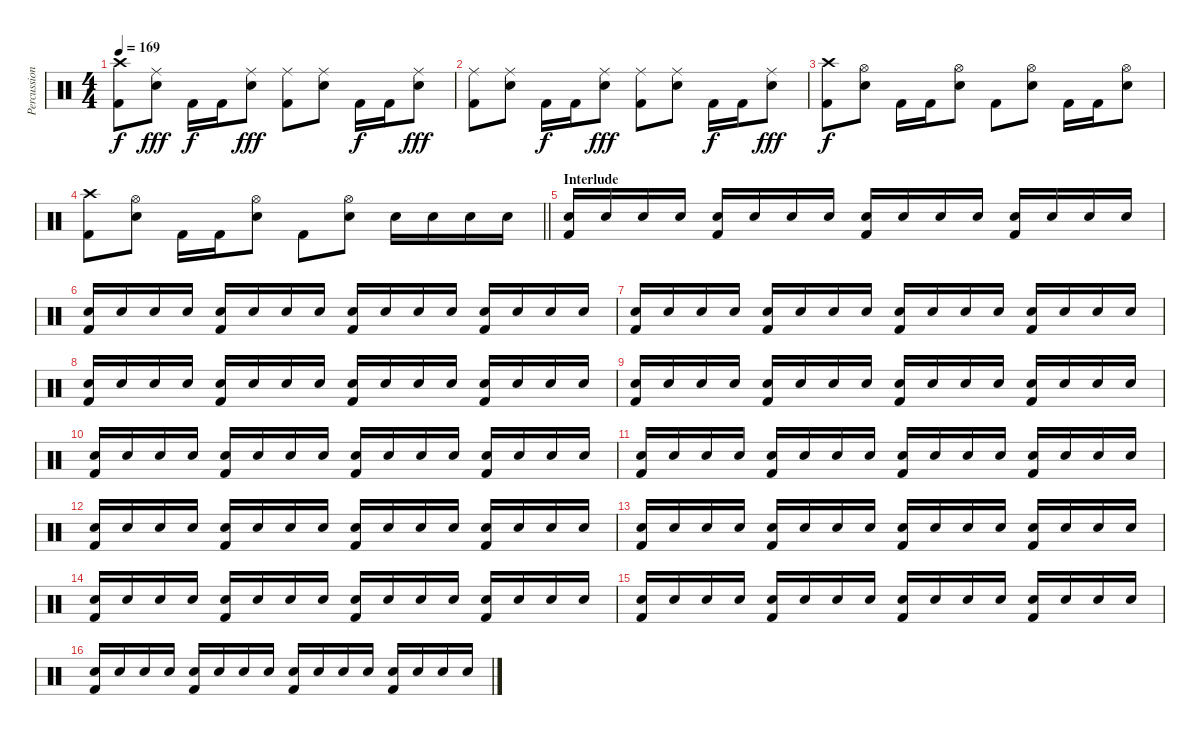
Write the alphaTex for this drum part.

\track ("Percussion" "Percussion") {instrument percussion}
\staff {score}
\articulation defaults
\ts (4 4)
\tempo 169
\clef neutral
\ks c
("Crash high (hit)" "Kick (hit) 2").8{dy f} ("Ride (middle)" "Electric Snare (hit)").8{dy fff} "Kick (hit) 2".16{dy f} "Kick (hit) 2".16 ("Ride (middle)" "Electric Snare (hit)").8{dy fff} ("Ride (middle)" "Kick (hit) 2").8 ("Ride (middle)" "Electric Snare (hit)").8 "Kick (hit) 2".16{dy f} "Kick (hit) 2".16 ("Ride (middle)" "Electric Snare (hit)").8{dy fff} |
("Ride (middle)" "Kick (hit) 2").8 ("Ride (middle)" "Electric Snare (hit)").8 "Kick (hit) 2".16{dy f} "Kick (hit) 2".16 ("Ride (middle)" "Electric Snare (hit)").8{dy fff} ("Ride (middle)" "Kick (hit) 2").8 ("Ride (middle)" "Electric Snare (hit)").8 "Kick (hit) 2".16{dy f} "Kick (hit) 2".16 ("Ride (middle)" "Electric Snare (hit)").8{dy fff} |
("Crash high (hit)" "Kick (hit) 2").8{dy f} ("Hi-Hat (open)" "Electric Snare (hit)").8 "Kick (hit) 2".16 "Kick (hit) 2".16 ("Hi-Hat (open)" "Electric Snare (hit)").8 "Kick (hit) 2".8 ("Hi-Hat (open)" "Electric Snare (hit)").8 "Kick (hit) 2".16 "Kick (hit) 2".16 ("Hi-Hat (open)" "Electric Snare (hit)").8 |
\barLineRight lightlight
("Crash high (hit)" "Kick (hit) 2").8 ("Hi-Hat (open)" "Electric Snare (hit)").8 "Kick (hit) 2".16 "Kick (hit) 2".16 ("Hi-Hat (open)" "Electric Snare (hit)").8 "Kick (hit) 2".8 ("Hi-Hat (open)" "Electric Snare (hit)").8 "Electric Snare (hit)".16 "Electric Snare (hit)".16 "Electric Snare (hit)".16 "Electric Snare (hit)".16 |
\section ("" "Interlude")
("Electric Snare (hit)" "Kick (hit) 2").16 "Electric Snare (hit)".16 "Electric Snare (hit)".16 "Electric Snare (hit)".16 ("Electric Snare (hit)" "Kick (hit) 2").16 "Electric Snare (hit)".16 "Electric Snare (hit)".16 "Electric Snare (hit)".16 ("Electric Snare (hit)" "Kick (hit) 2").16 "Electric Snare (hit)".16 "Electric Snare (hit)".16 "Electric Snare (hit)".16 ("Electric Snare (hit)" "Kick (hit) 2").16 "Electric Snare (hit)".16 "Electric Snare (hit)".16 "Electric Snare (hit)".16 |
("Electric Snare (hit)" "Kick (hit) 2").16 "Electric Snare (hit)".16 "Electric Snare (hit)".16 "Electric Snare (hit)".16 ("Electric Snare (hit)" "Kick (hit) 2").16 "Electric Snare (hit)".16 "Electric Snare (hit)".16 "Electric Snare (hit)".16 ("Electric Snare (hit)" "Kick (hit) 2").16 "Electric Snare (hit)".16 "Electric Snare (hit)".16 "Electric Snare (hit)".16 ("Electric Snare (hit)" "Kick (hit) 2").16 "Electric Snare (hit)".16 "Electric Snare (hit)".16 "Electric Snare (hit)".16 |
("Electric Snare (hit)" "Kick (hit) 2").16 "Electric Snare (hit)".16 "Electric Snare (hit)".16 "Electric Snare (hit)".16 ("Electric Snare (hit)" "Kick (hit) 2").16 "Electric Snare (hit)".16 "Electric Snare (hit)".16 "Electric Snare (hit)".16 ("Electric Snare (hit)" "Kick (hit) 2").16 "Electric Snare (hit)".16 "Electric Snare (hit)".16 "Electric Snare (hit)".16 ("Electric Snare (hit)" "Kick (hit) 2").16 "Electric Snare (hit)".16 "Electric Snare (hit)".16 "Electric Snare (hit)".16 |
("Electric Snare (hit)" "Kick (hit) 2").16 "Electric Snare (hit)".16 "Electric Snare (hit)".16 "Electric Snare (hit)".16 ("Electric Snare (hit)" "Kick (hit) 2").16 "Electric Snare (hit)".16 "Electric Snare (hit)".16 "Electric Snare (hit)".16 ("Electric Snare (hit)" "Kick (hit) 2").16 "Electric Snare (hit)".16 "Electric Snare (hit)".16 "Electric Snare (hit)".16 ("Electric Snare (hit)" "Kick (hit) 2").16 "Electric Snare (hit)".16 "Electric Snare (hit)".16 "Electric Snare (hit)".16 |
("Electric Snare (hit)" "Kick (hit) 2").16 "Electric Snare (hit)".16 "Electric Snare (hit)".16 "Electric Snare (hit)".16 ("Electric Snare (hit)" "Kick (hit) 2").16 "Electric Snare (hit)".16 "Electric Snare (hit)".16 "Electric Snare (hit)".16 ("Electric Snare (hit)" "Kick (hit) 2").16 "Electric Snare (hit)".16 "Electric Snare (hit)".16 "Electric Snare (hit)".16 ("Electric Snare (hit)" "Kick (hit) 2").16 "Electric Snare (hit)".16 "Electric Snare (hit)".16 "Electric Snare (hit)".16 |
("Electric Snare (hit)" "Kick (hit) 2").16 "Electric Snare (hit)".16 "Electric Snare (hit)".16 "Electric Snare (hit)".16 ("Electric Snare (hit)" "Kick (hit) 2").16 "Electric Snare (hit)".16 "Electric Snare (hit)".16 "Electric Snare (hit)".16 ("Electric Snare (hit)" "Kick (hit) 2").16 "Electric Snare (hit)".16 "Electric Snare (hit)".16 "Electric Snare (hit)".16 ("Electric Snare (hit)" "Kick (hit) 2").16 "Electric Snare (hit)".16 "Electric Snare (hit)".16 "Electric Snare (hit)".16 |
("Electric Snare (hit)" "Kick (hit) 2").16 "Electric Snare (hit)".16 "Electric Snare (hit)".16 "Electric Snare (hit)".16 ("Electric Snare (hit)" "Kick (hit) 2").16 "Electric Snare (hit)".16 "Electric Snare (hit)".16 "Electric Snare (hit)".16 ("Electric Snare (hit)" "Kick (hit) 2").16 "Electric Snare (hit)".16 "Electric Snare (hit)".16 "Electric Snare (hit)".16 ("Electric Snare (hit)" "Kick (hit) 2").16 "Electric Snare (hit)".16 "Electric Snare (hit)".16 "Electric Snare (hit)".16 |
("Electric Snare (hit)" "Kick (hit) 2").16 "Electric Snare (hit)".16 "Electric Snare (hit)".16 "Electric Snare (hit)".16 ("Electric Snare (hit)" "Kick (hit) 2").16 "Electric Snare (hit)".16 "Electric Snare (hit)".16 "Electric Snare (hit)".16 ("Electric Snare (hit)" "Kick (hit) 2").16 "Electric Snare (hit)".16 "Electric Snare (hit)".16 "Electric Snare (hit)".16 ("Electric Snare (hit)" "Kick (hit) 2").16 "Electric Snare (hit)".16 "Electric Snare (hit)".16 "Electric Snare (hit)".16 |
("Electric Snare (hit)" "Kick (hit) 2").16 "Electric Snare (hit)".16 "Electric Snare (hit)".16 "Electric Snare (hit)".16 ("Electric Snare (hit)" "Kick (hit) 2").16 "Electric Snare (hit)".16 "Electric Snare (hit)".16 "Electric Snare (hit)".16 ("Electric Snare (hit)" "Kick (hit) 2").16 "Electric Snare (hit)".16 "Electric Snare (hit)".16 "Electric Snare (hit)".16 ("Electric Snare (hit)" "Kick (hit) 2").16 "Electric Snare (hit)".16 "Electric Snare (hit)".16 "Electric Snare (hit)".16 |
("Electric Snare (hit)" "Kick (hit) 2").16 "Electric Snare (hit)".16 "Electric Snare (hit)".16 "Electric Snare (hit)".16 ("Electric Snare (hit)" "Kick (hit) 2").16 "Electric Snare (hit)".16 "Electric Snare (hit)".16 "Electric Snare (hit)".16 ("Electric Snare (hit)" "Kick (hit) 2").16 "Electric Snare (hit)".16 "Electric Snare (hit)".16 "Electric Snare (hit)".16 ("Electric Snare (hit)" "Kick (hit) 2").16 "Electric Snare (hit)".16 "Electric Snare (hit)".16 "Electric Snare (hit)".16 |
("Electric Snare (hit)" "Kick (hit) 2").16 "Electric Snare (hit)".16 "Electric Snare (hit)".16 "Electric Snare (hit)".16 ("Electric Snare (hit)" "Kick (hit) 2").16 "Electric Snare (hit)".16 "Electric Snare (hit)".16 "Electric Snare (hit)".16 ("Electric Snare (hit)" "Kick (hit) 2").16 "Electric Snare (hit)".16 "Electric Snare (hit)".16 "Electric Snare (hit)".16 ("Electric Snare (hit)" "Kick (hit) 2").16 "Electric Snare (hit)".16 "Electric Snare (hit)".16 "Electric Snare (hit)".16 |
("Electric Snare (hit)" "Kick (hit) 2").16 "Electric Snare (hit)".16 "Electric Snare (hit)".16 "Electric Snare (hit)".16 ("Electric Snare (hit)" "Kick (hit) 2").16 "Electric Snare (hit)".16 "Electric Snare (hit)".16 "Electric Snare (hit)".16 ("Electric Snare (hit)" "Kick (hit) 2").16 "Electric Snare (hit)".16 "Electric Snare (hit)".16 "Electric Snare (hit)".16 ("Electric Snare (hit)" "Kick (hit) 2").16 "Electric Snare (hit)".16 "Electric Snare (hit)".16 "Electric Snare (hit)".16
